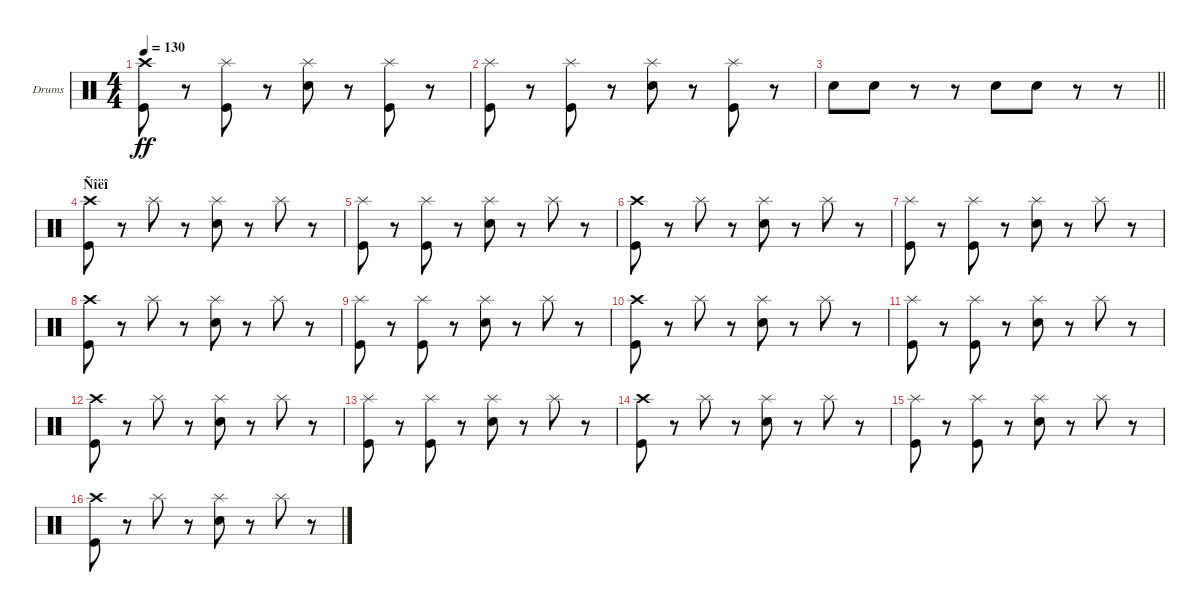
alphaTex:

\bracketExtendMode groupsimilarinstruments
\firstSystemTrackNameOrientation horizontal
\otherSystemsTrackNameOrientation horizontal
\track ("Drumkit" "Drums") {instrument percussion}
\staff {score}
\articulation defaults
\ts (4 4)
\tempo 130
\clef neutral
\ks c
("Kick (hit)" "Crash high (hit)").8{dy ff} r.8 ("Splash (hit)" "Kick (hit)").8 r.8 ("Snare (hit) 2" "Splash (hit)").8 r.8 ("Splash (hit)" "Kick (hit)").8 r.8 |
("Kick (hit)" "Splash (hit)").8 r.8 ("Kick (hit)" "Splash (hit)").8 r.8 ("Snare (hit) 2" "Splash (hit)").8 r.8 ("Splash (hit)" "Kick (hit)").8 r.8 |
\barLineRight lightlight "Snare (hit) 2".8 "Snare (hit) 2".8
r.8 r.8 "Snare (hit) 2".8 "Snare (hit) 2".8 r.8 r.8 |
\section ("" "Ñîëî")
("Kick (hit)" "Crash high (hit)").8 r.8 "Splash (hit)".8 r.8 ("Snare (hit) 2" "Splash (hit)").8 r.8 "Splash (hit)".8 r.8 |
("Kick (hit)" "Splash (hit)").8 r.8 ("Kick (hit)" "Splash (hit)").8 r.8 ("Snare (hit) 2" "Splash (hit)").8 r.8 "Splash (hit)".8 r.8 |
("Kick (hit)" "Crash high (hit)").8 r.8 "Splash (hit)".8 r.8 ("Snare (hit) 2" "Splash (hit)").8 r.8 "Splash (hit)".8 r.8 |
("Kick (hit)" "Splash (hit)").8 r.8 ("Kick (hit)" "Splash (hit)").8 r.8 ("Snare (hit) 2" "Splash (hit)").8 r.8 "Splash (hit)".8 r.8 |
("Kick (hit)" "Crash high (hit)").8 r.8 "Splash (hit)".8 r.8 ("Snare (hit) 2" "Splash (hit)").8 r.8 "Splash (hit)".8 r.8 |
("Kick (hit)" "Splash (hit)").8 r.8 ("Kick (hit)" "Splash (hit)").8 r.8 ("Snare (hit) 2" "Splash (hit)").8 r.8 "Splash (hit)".8 r.8 |
("Kick (hit)" "Crash high (hit)").8 r.8 "Splash (hit)".8 r.8 ("Snare (hit) 2" "Splash (hit)").8 r.8 "Splash (hit)".8 r.8 |
("Kick (hit)" "Splash (hit)").8 r.8 ("Kick (hit)" "Splash (hit)").8 r.8 ("Snare (hit) 2" "Splash (hit)").8 r.8 "Splash (hit)".8 r.8 |
("Kick (hit)" "Crash high (hit)").8 r.8 "Splash (hit)".8 r.8 ("Snare (hit) 2" "Splash (hit)").8 r.8 "Splash (hit)".8 r.8 |
("Kick (hit)" "Splash (hit)").8 r.8 ("Kick (hit)" "Splash (hit)").8 r.8 ("Snare (hit) 2" "Splash (hit)").8 r.8 "Splash (hit)".8 r.8 |
("Kick (hit)" "Crash high (hit)").8 r.8 "Splash (hit)".8 r.8 ("Snare (hit) 2" "Splash (hit)").8 r.8 "Splash (hit)".8 r.8 |
("Kick (hit)" "Splash (hit)").8 r.8 ("Kick (hit)" "Splash (hit)").8 r.8 ("Snare (hit) 2" "Splash (hit)").8 r.8 "Splash (hit)".8 r.8 |
("Kick (hit)" "Crash high (hit)").8 r.8 "Splash (hit)".8 r.8 ("Snare (hit) 2" "Splash (hit)").8 r.8 "Splash (hit)".8 r.8
